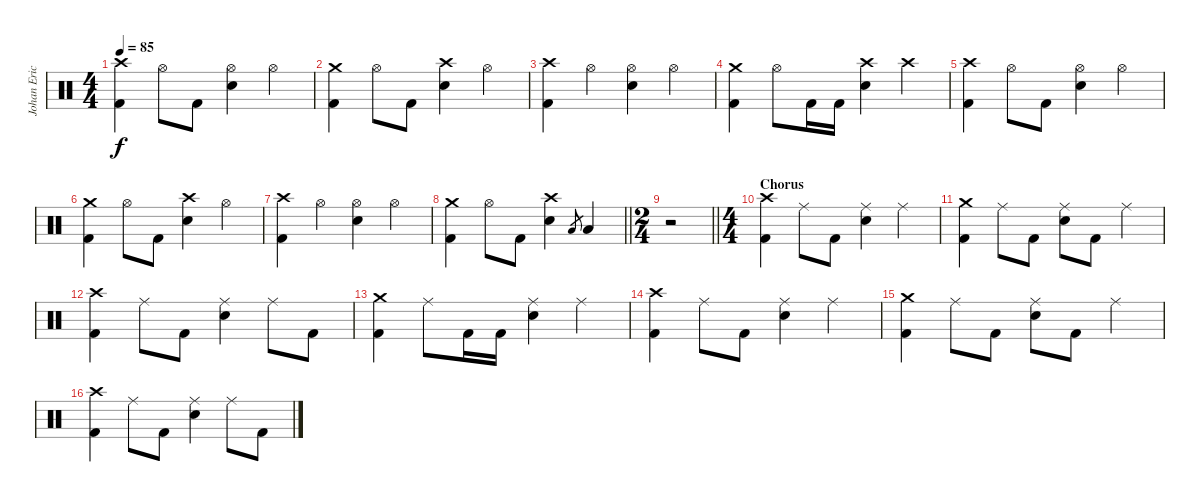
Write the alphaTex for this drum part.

\track ("Johan Ericson" "Johan Eric") {instrument percussion}
\staff {score}
\articulation defaults
\ts (4 4)
\tempo 85
\clef neutral
\ks c
("Crash high (hit)" "Kick (hit) 2").4{dy f} "Hi-Hat (open)".8 "Kick (hit) 2".8 ("Hi-Hat (open)" "Snare (hit) 2").4 "Hi-Hat (open)".4 |
("Crash medium (hit)" "Kick (hit) 2").4 "Hi-Hat (open)".8 "Kick (hit) 2".8 ("Crash high (hit)" "Snare (hit) 2").4 "Hi-Hat (open)".4 |
("Crash high (hit)" "Kick (hit) 2").4 "Hi-Hat (open)".4 ("Hi-Hat (open)" "Snare (hit) 2").4 "Hi-Hat (open)".4 |
("Crash medium (hit)" "Kick (hit) 2").4 "Hi-Hat (open)".8 "Kick (hit) 2".16 "Kick (hit) 2".16 ("Crash high (hit)" "Snare (hit) 2").4 "Crash high (hit)".4 |
("Crash high (hit)" "Kick (hit) 2").4 "Hi-Hat (open)".8 "Kick (hit) 2".8 ("Hi-Hat (open)" "Snare (hit) 2").4 "Hi-Hat (open)".4 |
("Crash medium (hit)" "Kick (hit) 2").4 "Hi-Hat (open)".8 "Kick (hit) 2".8 ("Crash high (hit)" "Snare (hit) 2").4 "Hi-Hat (open)".4 |
("Crash high (hit)" "Kick (hit) 2").4 "Hi-Hat (open)".4 ("Hi-Hat (open)" "Snare (hit) 2").4 "Hi-Hat (open)".4 |
\barLineRight lightlight
("Crash medium (hit)" "Kick (hit) 2").4 "Hi-Hat (open)".8 "Kick (hit) 2".8 ("Crash high (hit)" "Snare (hit) 2").4 "Low Tom (hit)".8{gr} "Low Tom (hit)".4 |
\ts (2 4)
\section ("" "")
\barLineRight lightlight
r.2 |
\ts (4 4)
\section ("" "Chorus")
("Crash high (hit)" "Kick (hit) 2").4 "Ride (middle)".8 "Kick (hit) 2".8 ("Ride (middle)" "Snare (hit) 2").4 "Ride (middle)".4 |
("Crash medium (hit)" "Kick (hit) 2").4 "Ride (middle)".8 "Kick (hit) 2".8 ("Ride (middle)" "Snare (hit) 2").8 "Kick (hit) 2".8 "Ride (middle)".4 |
("Crash high (hit)" "Kick (hit) 2").4 "Ride (middle)".8 "Kick (hit) 2".8 ("Ride (middle)" "Snare (hit) 2").4 "Ride (middle)".8 "Kick (hit) 2".8 |
("Crash medium (hit)" "Kick (hit) 2").4 "Ride (middle)".8 "Kick (hit) 2".16 "Kick (hit) 2".16 ("Ride (middle)" "Snare (hit) 2").4 "Ride (middle)".4 |
("Crash high (hit)" "Kick (hit) 2").4 "Ride (middle)".8 "Kick (hit) 2".8 ("Ride (middle)" "Snare (hit) 2").4 "Ride (middle)".4 |
("Crash medium (hit)" "Kick (hit) 2").4 "Ride (middle)".8 "Kick (hit) 2".8 ("Ride (middle)" "Snare (hit) 2").8 "Kick (hit) 2".8 "Ride (middle)".4 |
("Crash high (hit)" "Kick (hit) 2").4 "Ride (middle)".8 "Kick (hit) 2".8 ("Ride (middle)" "Snare (hit) 2").4 "Ride (middle)".8 "Kick (hit) 2".8
